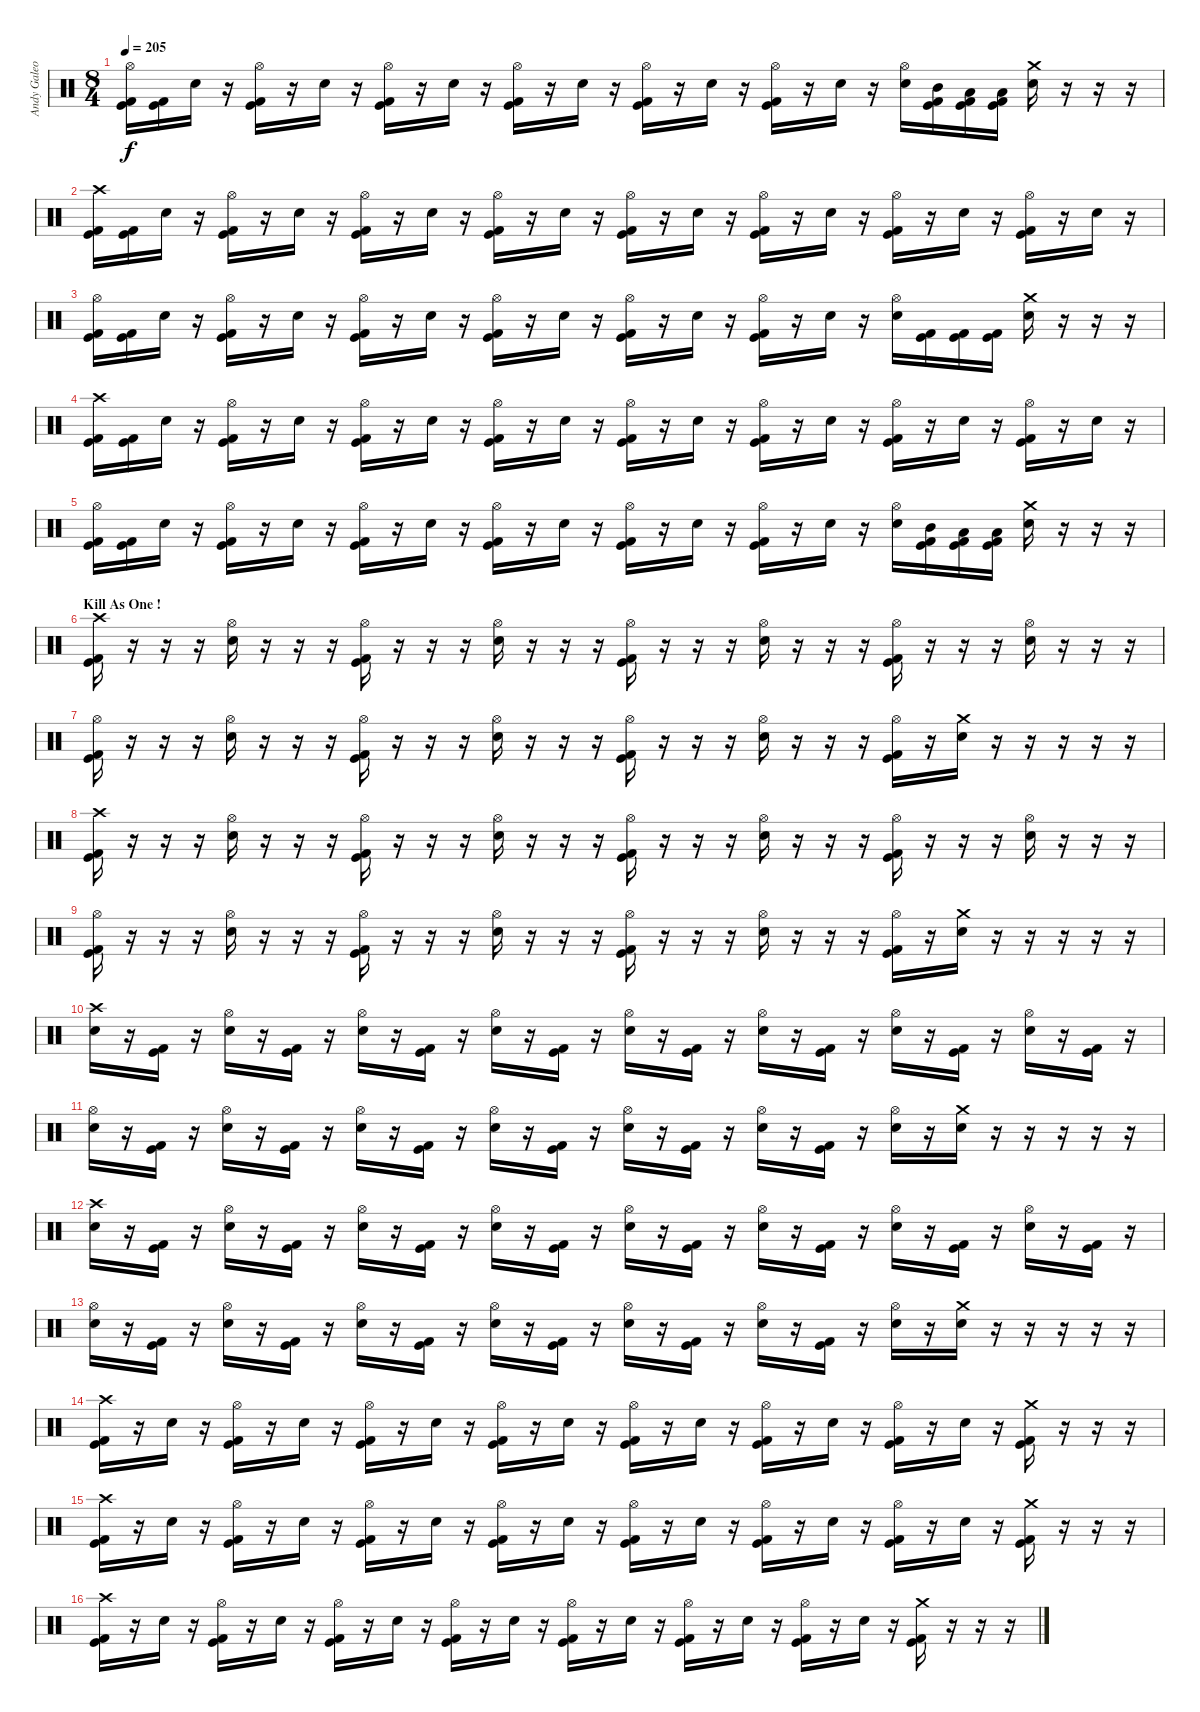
\track ("Andy Galeon - Drums" "Andy Galeo") {instrument percussion}
\staff {score}
\articulation defaults
\ts (8 4)
\tempo 205
\clef neutral
\ks c
("Hi-Hat (open)" "Kick (hit) 2" "Kick (hit)").16{dy f} ("Kick (hit) 2" "Kick (hit)").16 "Electric Snare (hit)".16 r.16 ("Hi-Hat (open)" "Kick (hit) 2" "Kick (hit)").16 r.16 "Electric Snare (hit)".16 r.16 ("Hi-Hat (open)" "Kick (hit) 2" "Kick (hit)").16 r.16 "Electric Snare (hit)".16 r.16 ("Hi-Hat (open)" "Kick (hit) 2" "Kick (hit)").16 r.16 "Electric Snare (hit)".16 r.16 ("Hi-Hat (open)" "Kick (hit) 2" "Kick (hit)").16 r.16 "Electric Snare (hit)".16 r.16 ("Hi-Hat (open)" "Kick (hit) 2" "Kick (hit)").16 r.16 "Electric Snare (hit)".16 r.16 ("Hi-Hat (open)" "Electric Snare (hit)").16 ("Mid Tom (hit)" "Kick (hit) 2" "Kick (hit)").16 ("Low Tom (hit)" "Kick (hit) 2" "Kick (hit)").16 ("Low Tom (hit)" "Kick (hit) 2" "Kick (hit)").16 ("Crash medium (hit)" "Electric Snare (hit)").16 r.16 r.16 r.16 |
("Crash high (hit)" "Kick (hit) 2" "Kick (hit)").16 ("Kick (hit) 2" "Kick (hit)").16 "Electric Snare (hit)".16 r.16 ("Hi-Hat (open)" "Kick (hit) 2" "Kick (hit)").16 r.16 "Electric Snare (hit)".16 r.16 ("Hi-Hat (open)" "Kick (hit) 2" "Kick (hit)").16 r.16 "Electric Snare (hit)".16 r.16 ("Hi-Hat (open)" "Kick (hit) 2" "Kick (hit)").16 r.16 "Electric Snare (hit)".16 r.16 ("Hi-Hat (open)" "Kick (hit) 2" "Kick (hit)").16 r.16 "Electric Snare (hit)".16 r.16 ("Hi-Hat (open)" "Kick (hit) 2" "Kick (hit)").16 r.16 "Electric Snare (hit)".16 r.16 ("Hi-Hat (open)" "Kick (hit) 2" "Kick (hit)").16 r.16 "Electric Snare (hit)".16 r.16 ("Hi-Hat (open)" "Kick (hit)" "Kick (hit) 2").16 r.16 "Electric Snare (hit)".16 r.16 |
("Hi-Hat (open)" "Kick (hit) 2" "Kick (hit)").16 ("Kick (hit) 2" "Kick (hit)").16 "Electric Snare (hit)".16 r.16 ("Hi-Hat (open)" "Kick (hit) 2" "Kick (hit)").16 r.16 "Electric Snare (hit)".16 r.16 ("Hi-Hat (open)" "Kick (hit) 2" "Kick (hit)").16 r.16 "Electric Snare (hit)".16 r.16 ("Hi-Hat (open)" "Kick (hit) 2" "Kick (hit)").16 r.16 "Electric Snare (hit)".16 r.16 ("Hi-Hat (open)" "Kick (hit) 2" "Kick (hit)").16 r.16 "Electric Snare (hit)".16 r.16 ("Hi-Hat (open)" "Kick (hit) 2" "Kick (hit)").16 r.16 "Electric Snare (hit)".16 r.16 ("Hi-Hat (open)" "Electric Snare (hit)").16 ("Kick (hit) 2" "Kick (hit)").16 ("Kick (hit) 2" "Kick (hit)").16 ("Kick (hit) 2" "Kick (hit)").16 ("Crash medium (hit)" "Electric Snare (hit)").16 r.16 r.16 r.16 |
("Crash high (hit)" "Kick (hit) 2" "Kick (hit)").16 ("Kick (hit) 2" "Kick (hit)").16 "Electric Snare (hit)".16 r.16 ("Hi-Hat (open)" "Kick (hit) 2" "Kick (hit)").16 r.16 "Electric Snare (hit)".16 r.16 ("Hi-Hat (open)" "Kick (hit) 2" "Kick (hit)").16 r.16 "Electric Snare (hit)".16 r.16 ("Hi-Hat (open)" "Kick (hit) 2" "Kick (hit)").16 r.16 "Electric Snare (hit)".16 r.16 ("Hi-Hat (open)" "Kick (hit) 2" "Kick (hit)").16 r.16 "Electric Snare (hit)".16 r.16 ("Hi-Hat (open)" "Kick (hit) 2" "Kick (hit)").16 r.16 "Electric Snare (hit)".16 r.16 ("Hi-Hat (open)" "Kick (hit) 2" "Kick (hit)").16 r.16 "Electric Snare (hit)".16 r.16 ("Hi-Hat (open)" "Kick (hit)" "Kick (hit) 2").16 r.16 "Electric Snare (hit)".16 r.16 |
("Hi-Hat (open)" "Kick (hit) 2" "Kick (hit)").16 ("Kick (hit) 2" "Kick (hit)").16 "Electric Snare (hit)".16 r.16 ("Hi-Hat (open)" "Kick (hit) 2" "Kick (hit)").16 r.16 "Electric Snare (hit)".16 r.16 ("Hi-Hat (open)" "Kick (hit) 2" "Kick (hit)").16 r.16 "Electric Snare (hit)".16 r.16 ("Hi-Hat (open)" "Kick (hit) 2" "Kick (hit)").16 r.16 "Electric Snare (hit)".16 r.16 ("Hi-Hat (open)" "Kick (hit) 2" "Kick (hit)").16 r.16 "Electric Snare (hit)".16 r.16 ("Hi-Hat (open)" "Kick (hit) 2" "Kick (hit)").16 r.16 "Electric Snare (hit)".16 r.16 ("Hi-Hat (open)" "Electric Snare (hit)").16 ("Mid Tom (hit)" "Kick (hit) 2" "Kick (hit)").16 ("Low Tom (hit)" "Kick (hit) 2" "Kick (hit)").16 ("Low Tom (hit)" "Kick (hit) 2" "Kick (hit)").16 ("Crash medium (hit)" "Electric Snare (hit)").16 r.16 r.16 r.16 |
\section ("" "Kill As One !")
("Crash high (hit)" "Kick (hit) 2" "Kick (hit)").16 r.16 r.16 r.16 ("Hi-Hat (open)" "Electric Snare (hit)").16 r.16 r.16 r.16 ("Hi-Hat (open)" "Kick (hit) 2" "Kick (hit)").16 r.16 r.16 r.16 ("Hi-Hat (open)" "Electric Snare (hit)").16 r.16 r.16 r.16 ("Hi-Hat (open)" "Kick (hit) 2" "Kick (hit)").16 r.16 r.16 r.16 ("Hi-Hat (open)" "Electric Snare (hit)").16 r.16 r.16 r.16 ("Hi-Hat (open)" "Kick (hit) 2" "Kick (hit)").16 r.16 r.16 r.16 ("Hi-Hat (open)" "Electric Snare (hit)").16 r.16 r.16 r.16 |
("Hi-Hat (open)" "Kick (hit) 2" "Kick (hit)").16 r.16 r.16 r.16 ("Hi-Hat (open)" "Electric Snare (hit)").16 r.16 r.16 r.16 ("Hi-Hat (open)" "Kick (hit) 2" "Kick (hit)").16 r.16 r.16 r.16 ("Hi-Hat (open)" "Electric Snare (hit)").16 r.16 r.16 r.16 ("Hi-Hat (open)" "Kick (hit) 2" "Kick (hit)").16 r.16 r.16 r.16 ("Hi-Hat (open)" "Electric Snare (hit)").16 r.16 r.16 r.16 ("Hi-Hat (open)" "Kick (hit) 2" "Kick (hit)").16 r.16 ("Crash medium (hit)" "Electric Snare (hit)").16 r.16 r.16 r.16 r.16 r.16 |
("Crash high (hit)" "Kick (hit) 2" "Kick (hit)").16 r.16 r.16 r.16 ("Hi-Hat (open)" "Electric Snare (hit)").16 r.16 r.16 r.16 ("Hi-Hat (open)" "Kick (hit) 2" "Kick (hit)").16 r.16 r.16 r.16 ("Hi-Hat (open)" "Electric Snare (hit)").16 r.16 r.16 r.16 ("Hi-Hat (open)" "Kick (hit) 2" "Kick (hit)").16 r.16 r.16 r.16 ("Hi-Hat (open)" "Electric Snare (hit)").16 r.16 r.16 r.16 ("Hi-Hat (open)" "Kick (hit) 2" "Kick (hit)").16 r.16 r.16 r.16 ("Hi-Hat (open)" "Electric Snare (hit)").16 r.16 r.16 r.16 |
("Hi-Hat (open)" "Kick (hit) 2" "Kick (hit)").16 r.16 r.16 r.16 ("Hi-Hat (open)" "Electric Snare (hit)").16 r.16 r.16 r.16 ("Hi-Hat (open)" "Kick (hit) 2" "Kick (hit)").16 r.16 r.16 r.16 ("Hi-Hat (open)" "Electric Snare (hit)").16 r.16 r.16 r.16 ("Hi-Hat (open)" "Kick (hit) 2" "Kick (hit)").16 r.16 r.16 r.16 ("Hi-Hat (open)" "Electric Snare (hit)").16 r.16 r.16 r.16 ("Hi-Hat (open)" "Kick (hit) 2" "Kick (hit)").16 r.16 ("Crash medium (hit)" "Electric Snare (hit)").16 r.16 r.16 r.16 r.16 r.16 |
("Crash high (hit)" "Electric Snare (hit)").16 r.16 ("Kick (hit) 2" "Kick (hit)").16 r.16 ("Hi-Hat (open)" "Electric Snare (hit)").16 r.16 ("Kick (hit) 2" "Kick (hit)").16 r.16 ("Hi-Hat (open)" "Electric Snare (hit)").16 r.16 ("Kick (hit) 2" "Kick (hit)").16 r.16 ("Hi-Hat (open)" "Electric Snare (hit)").16 r.16 ("Kick (hit) 2" "Kick (hit)").16 r.16 ("Hi-Hat (open)" "Electric Snare (hit)").16 r.16 ("Kick (hit) 2" "Kick (hit)").16 r.16 ("Hi-Hat (open)" "Electric Snare (hit)").16 r.16 ("Kick (hit) 2" "Kick (hit)").16 r.16 ("Hi-Hat (open)" "Electric Snare (hit)").16 r.16 ("Kick (hit) 2" "Kick (hit)").16 r.16 ("Hi-Hat (open)" "Electric Snare (hit)").16 r.16 ("Kick (hit) 2" "Kick (hit)").16 r.16 |
("Hi-Hat (open)" "Electric Snare (hit)").16 r.16 ("Kick (hit) 2" "Kick (hit)").16 r.16 ("Hi-Hat (open)" "Electric Snare (hit)").16 r.16 ("Kick (hit) 2" "Kick (hit)").16 r.16 ("Hi-Hat (open)" "Electric Snare (hit)").16 r.16 ("Kick (hit) 2" "Kick (hit)").16 r.16 ("Hi-Hat (open)" "Electric Snare (hit)").16 r.16 ("Kick (hit) 2" "Kick (hit)").16 r.16 ("Hi-Hat (open)" "Electric Snare (hit)").16 r.16 ("Kick (hit) 2" "Kick (hit)").16 r.16 ("Hi-Hat (open)" "Electric Snare (hit)").16 r.16 ("Kick (hit) 2" "Kick (hit)").16 r.16 ("Hi-Hat (open)" "Electric Snare (hit)").16 r.16 ("Crash medium (hit)" "Electric Snare (hit)").16 r.16 r.16 r.16 r.16 r.16 |
("Crash high (hit)" "Electric Snare (hit)").16 r.16 ("Kick (hit) 2" "Kick (hit)").16 r.16 ("Hi-Hat (open)" "Electric Snare (hit)").16 r.16 ("Kick (hit) 2" "Kick (hit)").16 r.16 ("Hi-Hat (open)" "Electric Snare (hit)").16 r.16 ("Kick (hit) 2" "Kick (hit)").16 r.16 ("Hi-Hat (open)" "Electric Snare (hit)").16 r.16 ("Kick (hit) 2" "Kick (hit)").16 r.16 ("Hi-Hat (open)" "Electric Snare (hit)").16 r.16 ("Kick (hit) 2" "Kick (hit)").16 r.16 ("Hi-Hat (open)" "Electric Snare (hit)").16 r.16 ("Kick (hit) 2" "Kick (hit)").16 r.16 ("Hi-Hat (open)" "Electric Snare (hit)").16 r.16 ("Kick (hit) 2" "Kick (hit)").16 r.16 ("Hi-Hat (open)" "Electric Snare (hit)").16 r.16 ("Kick (hit) 2" "Kick (hit)").16 r.16 |
("Hi-Hat (open)" "Electric Snare (hit)").16 r.16 ("Kick (hit) 2" "Kick (hit)").16 r.16 ("Hi-Hat (open)" "Electric Snare (hit)").16 r.16 ("Kick (hit) 2" "Kick (hit)").16 r.16 ("Hi-Hat (open)" "Electric Snare (hit)").16 r.16 ("Kick (hit) 2" "Kick (hit)").16 r.16 ("Hi-Hat (open)" "Electric Snare (hit)").16 r.16 ("Kick (hit) 2" "Kick (hit)").16 r.16 ("Hi-Hat (open)" "Electric Snare (hit)").16 r.16 ("Kick (hit) 2" "Kick (hit)").16 r.16 ("Hi-Hat (open)" "Electric Snare (hit)").16 r.16 ("Kick (hit) 2" "Kick (hit)").16 r.16 ("Hi-Hat (open)" "Electric Snare (hit)").16 r.16 ("Crash medium (hit)" "Electric Snare (hit)").16 r.16 r.16 r.16 r.16 r.16 |
("Crash high (hit)" "Kick (hit) 2" "Kick (hit)").16 r.16 "Electric Snare (hit)".16 r.16 ("Hi-Hat (open)" "Kick (hit) 2" "Kick (hit)").16 r.16 "Electric Snare (hit)".16 r.16 ("Hi-Hat (open)" "Kick (hit) 2" "Kick (hit)").16 r.16 "Electric Snare (hit)".16 r.16 ("Hi-Hat (open)" "Kick (hit) 2" "Kick (hit)").16 r.16 "Electric Snare (hit)".16 r.16 ("Hi-Hat (open)" "Kick (hit) 2" "Kick (hit)").16 r.16 "Electric Snare (hit)".16 r.16 ("Hi-Hat (open)" "Kick (hit) 2" "Kick (hit)").16 r.16 "Electric Snare (hit)".16 r.16 ("Hi-Hat (open)" "Kick (hit) 2" "Kick (hit)").16 r.16 "Electric Snare (hit)".16 r.16 ("Crash medium (hit)" "Kick (hit)" "Kick (hit) 2").16 r.16 r.16 r.16 |
("Crash high (hit)" "Kick (hit) 2" "Kick (hit)").16 r.16 "Electric Snare (hit)".16 r.16 ("Hi-Hat (open)" "Kick (hit) 2" "Kick (hit)").16 r.16 "Electric Snare (hit)".16 r.16 ("Hi-Hat (open)" "Kick (hit) 2" "Kick (hit)").16 r.16 "Electric Snare (hit)".16 r.16 ("Hi-Hat (open)" "Kick (hit) 2" "Kick (hit)").16 r.16 "Electric Snare (hit)".16 r.16 ("Hi-Hat (open)" "Kick (hit) 2" "Kick (hit)").16 r.16 "Electric Snare (hit)".16 r.16 ("Hi-Hat (open)" "Kick (hit) 2" "Kick (hit)").16 r.16 "Electric Snare (hit)".16 r.16 ("Hi-Hat (open)" "Kick (hit) 2" "Kick (hit)").16 r.16 "Electric Snare (hit)".16 r.16 ("Crash medium (hit)" "Kick (hit)" "Kick (hit) 2").16 r.16 r.16 r.16 |
("Crash high (hit)" "Kick (hit) 2" "Kick (hit)").16 r.16 "Electric Snare (hit)".16 r.16 ("Hi-Hat (open)" "Kick (hit) 2" "Kick (hit)").16 r.16 "Electric Snare (hit)".16 r.16 ("Hi-Hat (open)" "Kick (hit) 2" "Kick (hit)").16 r.16 "Electric Snare (hit)".16 r.16 ("Hi-Hat (open)" "Kick (hit) 2" "Kick (hit)").16 r.16 "Electric Snare (hit)".16 r.16 ("Hi-Hat (open)" "Kick (hit) 2" "Kick (hit)").16 r.16 "Electric Snare (hit)".16 r.16 ("Hi-Hat (open)" "Kick (hit) 2" "Kick (hit)").16 r.16 "Electric Snare (hit)".16 r.16 ("Hi-Hat (open)" "Kick (hit) 2" "Kick (hit)").16 r.16 "Electric Snare (hit)".16 r.16 ("Crash medium (hit)" "Kick (hit)" "Kick (hit) 2").16 r.16 r.16 r.16
